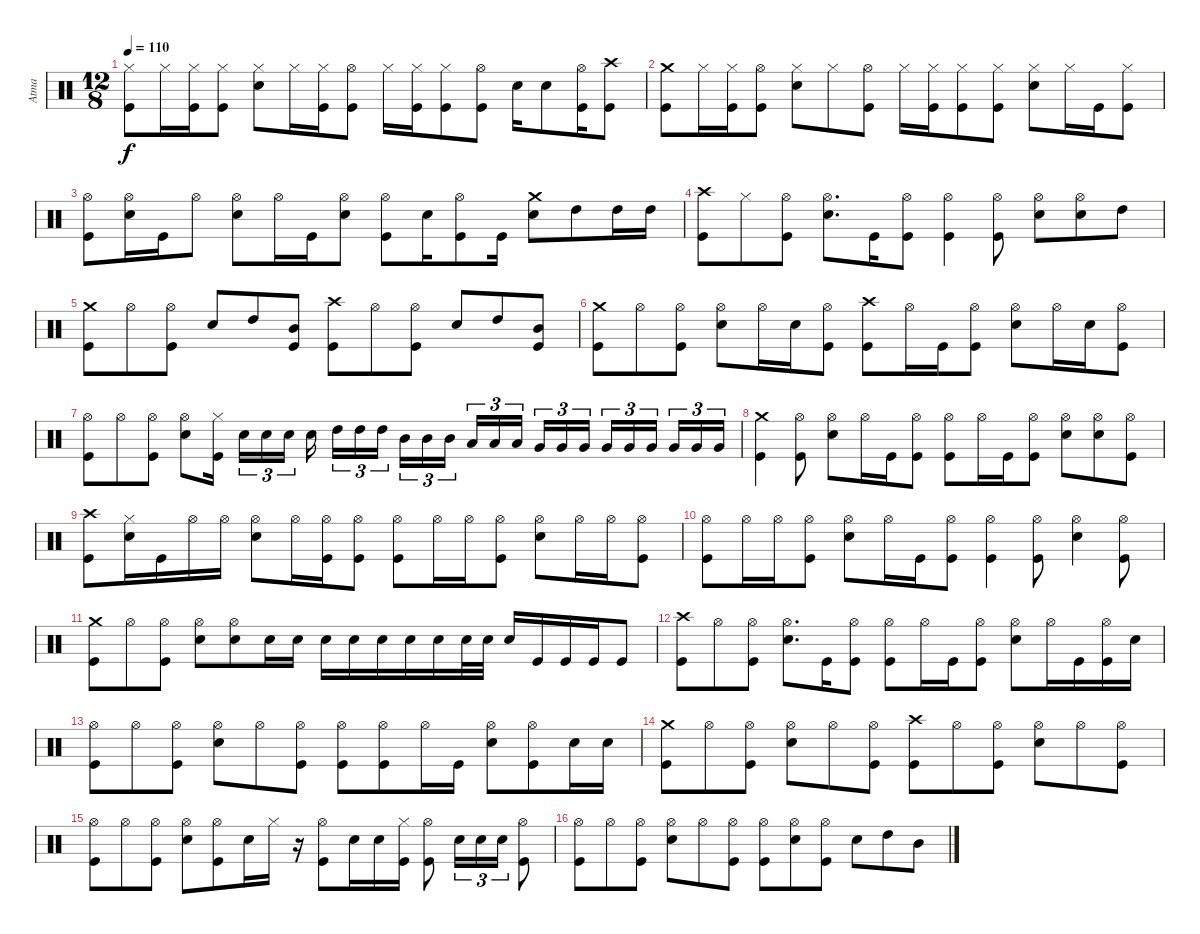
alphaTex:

\track ("Atma" "Atma") {instrument percussion}
\staff {score}
\articulation defaults
\ts (12 8)
\tempo 110
\clef neutral
\ks c
("Kick (hit)" "Hi-Hat (closed)").8{dy f} "Hi-Hat (closed)".16 ("Kick (hit)" "Hi-Hat (closed)").16 ("Kick (hit)" "Hi-Hat (closed)").8 ("Snare (hit) 2" "Hi-Hat (closed)").8 "Hi-Hat (closed)".16 ("Kick (hit)" "Hi-Hat (closed)").16 ("Kick (hit)" "Hi-Hat (open)").8 "Hi-Hat (closed)".16 ("Kick (hit)" "Hi-Hat (closed)").16 ("Kick (hit)" "Hi-Hat (closed)").8 ("Kick (hit)" "Hi-Hat (open)").8 "Snare (hit) 2".16 "Snare (hit) 2".8 ("Kick (hit)" "Hi-Hat (open)").16 ("Kick (hit)" "Crash high (hit)").8 |
("Kick (hit)" "Crash medium (hit)").8 "Hi-Hat (closed)".16 ("Kick (hit)" "Hi-Hat (closed)").16 ("Kick (hit)" "Hi-Hat (open)").8 ("Snare (hit) 2" "Hi-Hat (closed)").8 "Hi-Hat (closed)".8 ("Kick (hit)" "Hi-Hat (open)").8 "Hi-Hat (closed)".16 ("Kick (hit)" "Hi-Hat (closed)").16 ("Kick (hit)" "Hi-Hat (closed)").8 ("Kick (hit)" "Hi-Hat (closed)").8 ("Snare (hit) 2" "Hi-Hat (closed)").8 "Hi-Hat (closed)".16 "Kick (hit)".16 ("Kick (hit)" "Hi-Hat (closed)").8 |
("Kick (hit)" "Hi-Hat (open)").8 ("Snare (hit) 2" "Hi-Hat (open)").16 "Kick (hit)".16 "Hi-Hat (open)".8 ("Snare (hit) 2" "Hi-Hat (open)").8 "Hi-Hat (open)".16 "Kick (hit)".16 ("Snare (hit) 2" "Hi-Hat (open)").8 ("Kick (hit)" "Hi-Hat (open)").8 "Snare (hit) 2".16 ("Kick (hit)" "Hi-Hat (open)").8 "Kick (hit)".16 ("Snare (hit) 2" "Crash medium (hit)").8 "High Tom (hit)".8 "High Tom (hit)".16 "High Tom (hit)".16 |
("Kick (hit)" "Crash high (hit)").8 "Hi-Hat (closed)".8 ("Kick (hit)" "Hi-Hat (open)").8 ("Snare (hit) 2" "Hi-Hat (open)").8{d} "Kick (hit)".16 ("Kick (hit)" "Hi-Hat (open)").8 ("Kick (hit)" "Hi-Hat (open)").4 ("Kick (hit)" "Hi-Hat (open)").8 ("Snare (hit) 2" "Hi-Hat (open)").8 ("Snare (hit) 2" "Hi-Hat (open)").8 "High Tom (hit)".8 |
("Kick (hit)" "Crash medium (hit)").8 "Hi-Hat (open)".8 ("Kick (hit)" "Hi-Hat (open)").8 "Snare (hit) 2".8 "High Tom (hit)".8 ("Kick (hit)" "Mid Tom (hit)").8 ("Kick (hit)" "Crash high (hit)").8 "Hi-Hat (open)".8 ("Kick (hit)" "Hi-Hat (open)").8 "Snare (hit) 2".8 "High Tom (hit)".8 ("Kick (hit)" "Mid Tom (hit)").8 |
("Kick (hit)" "Crash medium (hit)").8 "Hi-Hat (open)".8 ("Kick (hit)" "Hi-Hat (open)").8 ("Snare (hit) 2" "Hi-Hat (open)").8 "Hi-Hat (open)".16 "Snare (hit) 2".16 ("Kick (hit)" "Hi-Hat (open)").8 ("Kick (hit)" "Crash high (hit)").8 "Hi-Hat (open)".16 "Kick (hit)".16 ("Kick (hit)" "Hi-Hat (open)").8 ("Snare (hit) 2" "Hi-Hat (open)").8 "Hi-Hat (open)".16 "Snare (hit) 2".16 ("Kick (hit)" "Hi-Hat (open)").8 |
("Kick (hit)" "Hi-Hat (open)").8 "Hi-Hat (open)".8 ("Kick (hit)" "Hi-Hat (open)").8 ("Snare (hit) 2" "Hi-Hat (open)").8 ("Kick (hit)" "Hi-Hat (closed)").16 "Snare (hit) 2".16{tu (3 2)} "Snare (hit) 2".16{tu (3 2)} "Snare (hit) 2".16{tu (3 2)} "Snare (hit) 2".16 "High Tom (hit)".16{tu (3 2)} "High Tom (hit)".16{tu (3 2)} "High Tom (hit)".16{tu (3 2)} "Mid Tom (hit)".16{tu (3 2)} "Mid Tom (hit)".16{tu (3 2)} "Mid Tom (hit)".16{tu (3 2)} "Low Tom (hit)".16{tu (3 2)} "Low Tom (hit)".16{tu (3 2)} "Low Tom (hit)".16{tu (3 2)} "Very Low Tom (hit)".16{tu (3 2)} "Very Low Tom (hit)".16{tu (3 2)} "Very Low Tom (hit)".16{tu (3 2)} "Very Low Tom (hit)".16{tu (3 2)} "Very Low Tom (hit)".16{tu (3 2)} "Very Low Tom (hit)".16{tu (3 2)} "Very Low Tom (hit)".16{tu (3 2)} "Very Low Tom (hit)".16{tu (3 2)} "Very Low Tom (hit)".16{tu (3 2)} |
("Kick (hit)" "Crash medium (hit)").4 ("Kick (hit)" "Hi-Hat (open)").8 ("Snare (hit) 2" "Hi-Hat (open)").8 "Hi-Hat (open)".16 "Kick (hit)".16 ("Kick (hit)" "Hi-Hat (open)").8 ("Kick (hit)" "Hi-Hat (open)").8 "Hi-Hat (open)".16 "Kick (hit)".16 ("Kick (hit)" "Hi-Hat (open)").8 ("Snare (hit) 2" "Hi-Hat (open)").8 ("Snare (hit) 2" "Hi-Hat (open)").8 ("Kick (hit)" "Hi-Hat (open)").8 |
("Kick (hit)" "Crash high (hit)").8 ("Snare (hit) 2" "Hi-Hat (closed)").16 "Kick (hit)".16 "Hi-Hat (open)".16 "Hi-Hat (open)".16 ("Snare (hit) 2" "Hi-Hat (open)").8 "Hi-Hat (open)".16 ("Kick (hit)" "Hi-Hat (open)").16 ("Kick (hit)" "Hi-Hat (open)").8 ("Kick (hit)" "Hi-Hat (open)").8 "Hi-Hat (open)".16 "Hi-Hat (open)".16 ("Kick (hit)" "Hi-Hat (open)").8 ("Snare (hit) 2" "Hi-Hat (open)").8 "Hi-Hat (open)".16 "Hi-Hat (open)".16 ("Kick (hit)" "Hi-Hat (open)").8 |
("Kick (hit)" "Hi-Hat (open)").8 "Hi-Hat (open)".16 "Hi-Hat (open)".16 ("Kick (hit)" "Hi-Hat (open)").8 ("Snare (hit) 2" "Hi-Hat (open)").8 "Hi-Hat (open)".16 "Kick (hit)".16 ("Kick (hit)" "Hi-Hat (open)").8 ("Kick (hit)" "Hi-Hat (open)").4 ("Kick (hit)" "Hi-Hat (open)").8 ("Snare (hit) 2" "Hi-Hat (open)").4 ("Kick (hit)" "Hi-Hat (open)").8 |
("Kick (hit)" "Crash medium (hit)").8 "Hi-Hat (open)".8 ("Kick (hit)" "Hi-Hat (open)").8 ("Snare (hit) 2" "Hi-Hat (open)").8 ("Snare (hit) 2" "Hi-Hat (open)").8 "Snare (hit) 2".16 "Snare (hit) 2".16 "Snare (hit) 2".16 "Snare (hit) 2".16 "Snare (hit) 2".16 "Snare (hit) 2".16 "Snare (hit) 2".16 "Snare (hit) 2".32 "Snare (hit) 2".32 "Snare (hit) 2".16 "Kick (hit)".16 "Kick (hit)".16 "Kick (hit)".16 "Kick (hit)".8 |
("Kick (hit)" "Crash high (hit)").8 "Hi-Hat (open)".8 ("Kick (hit)" "Hi-Hat (open)").8 ("Snare (hit) 2" "Hi-Hat (open)").8{d} "Kick (hit)".16 ("Kick (hit)" "Hi-Hat (open)").8 ("Kick (hit)" "Hi-Hat (open)").8 "Hi-Hat (open)".16 "Kick (hit)".16 ("Kick (hit)" "Hi-Hat (open)").8 ("Snare (hit) 2" "Hi-Hat (open)").8 "Hi-Hat (open)".16 "Kick (hit)".16 ("Kick (hit)" "Hi-Hat (open)").16 "Snare (hit) 2".16 |
("Kick (hit)" "Hi-Hat (open)").8 "Hi-Hat (open)".8 ("Kick (hit)" "Hi-Hat (open)").8 ("Snare (hit) 2" "Hi-Hat (open)").8 "Hi-Hat (open)".8 ("Kick (hit)" "Hi-Hat (open)").8 ("Kick (hit)" "Hi-Hat (open)").8 ("Kick (hit)" "Hi-Hat (open)").8 "Hi-Hat (open)".16 "Kick (hit)".16 ("Snare (hit) 2" "Hi-Hat (open)").8 ("Kick (hit)" "Hi-Hat (open)").8 "Snare (hit) 2".16 "Snare (hit) 2".16 |
("Kick (hit)" "Crash medium (hit)").8 "Hi-Hat (open)".8 ("Kick (hit)" "Hi-Hat (open)").8 ("Snare (hit) 2" "Hi-Hat (open)").8 "Hi-Hat (open)".8 ("Kick (hit)" "Hi-Hat (open)").8 ("Kick (hit)" "Crash high (hit)").8 "Hi-Hat (open)".8 ("Kick (hit)" "Hi-Hat (open)").8 ("Snare (hit) 2" "Hi-Hat (open)").8 "Hi-Hat (open)".8 ("Kick (hit)" "Hi-Hat (open)").8 |
("Kick (hit)" "Hi-Hat (open)").8 "Hi-Hat (open)".8 ("Kick (hit)" "Hi-Hat (open)").8 ("Snare (hit) 2" "Hi-Hat (open)").8 ("Kick (hit)" "Hi-Hat (open)").8 "Snare (hit) 2".16 "Hi-Hat (closed)".16 r.16 ("Kick (hit)" "Hi-Hat (open)").8 "Snare (hit) 2".16 "Snare (hit) 2".16 ("Kick (hit)" "Hi-Hat (closed)").16 ("Kick (hit)" "Hi-Hat (open)").8 "Snare (hit) 2".16{tu (3 2)} "Snare (hit) 2".16{tu (3 2)} "Snare (hit) 2".16{tu (3 2)} ("Kick (hit)" "Hi-Hat (open)").8 |
("Kick (hit)" "Hi-Hat (open)").8 "Hi-Hat (open)".8 ("Kick (hit)" "Hi-Hat (open)").8 ("Snare (hit) 2" "Hi-Hat (open)").8 "Hi-Hat (open)".8 ("Kick (hit)" "Hi-Hat (open)").8 ("Kick (hit)" "Hi-Hat (open)").8 ("Snare (hit) 2" "Hi-Hat (open)").8 ("Kick (hit)" "Hi-Hat (open)").8 "Snare (hit) 2".8 "High Tom (hit)".8 "Mid Tom (hit)".8
